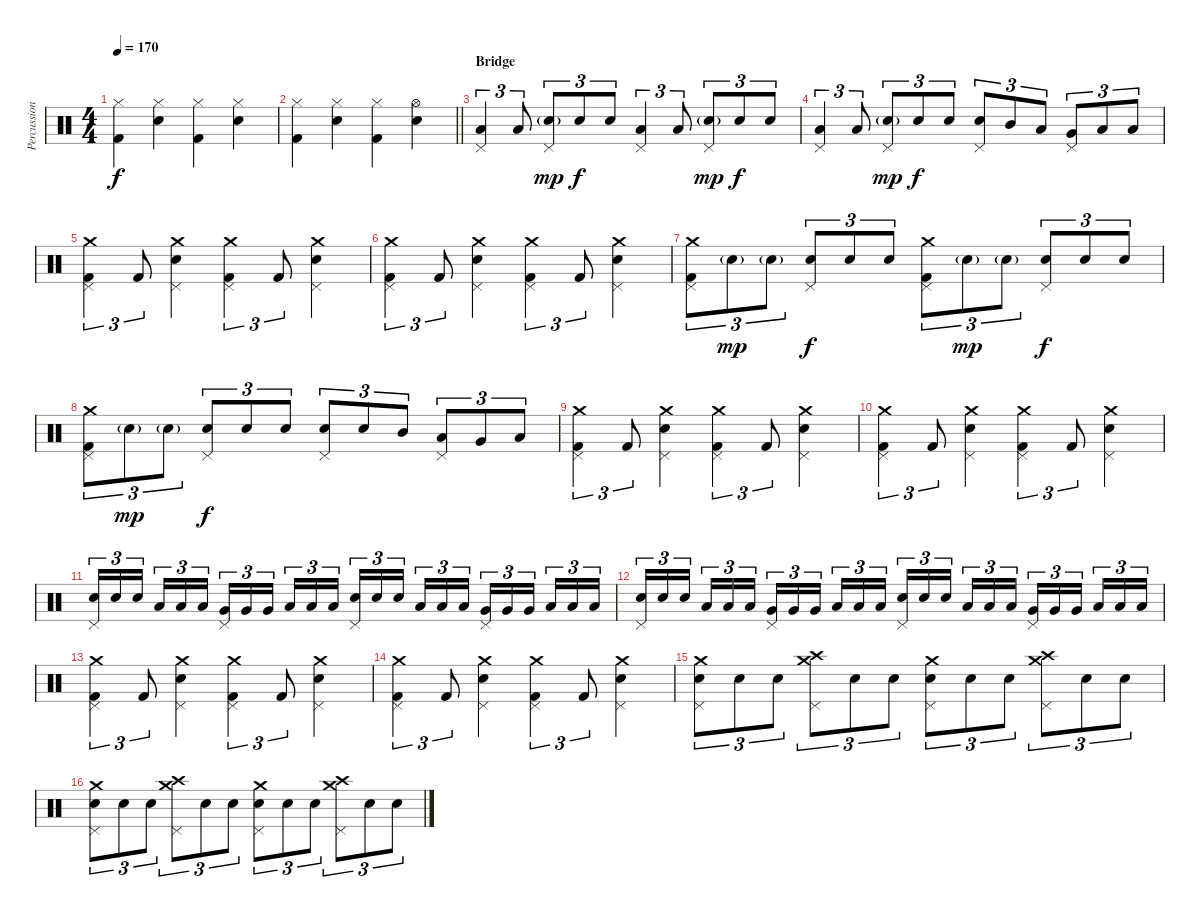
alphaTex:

\track ("Percussion" "Percussion") {instrument percussion}
\staff {score}
\articulation defaults
\ts (4 4)
\tempo 170
\clef neutral
\ks c
("Hi-Hat (closed)" "Kick (hit) 2").4{dy f} ("Hi-Hat (closed)" "Snare (hit) 2").4 ("Hi-Hat (closed)" "Kick (hit) 2").4 ("Hi-Hat (closed)" "Snare (hit) 2").4 |
\barLineRight lightlight
("Hi-Hat (closed)" "Kick (hit) 2").4 ("Hi-Hat (closed)" "Snare (hit) 2").4 ("Hi-Hat (closed)" "Kick (hit) 2").4 ("Hi-Hat (open)" "Snare (hit) 2").4 |
\section ("" "Bridge")
("Pedal Hi-Hat (hit)" "Low Tom (hit)").4{tu (3 2)} "Low Tom (hit)".8{tu (3 2)} ("Pedal Hi-Hat (hit)" "Snare (hit) 2"{g}).8{tu (3 2) dy mp} "Snare (hit) 2".8{tu (3 2) dy f} "Snare (hit) 2".8{tu (3 2)} ("Pedal Hi-Hat (hit)" "Low Tom (hit)").4{tu (3 2)} "Low Tom (hit)".8{tu (3 2)} ("Pedal Hi-Hat (hit)" "Snare (hit) 2"{g}).8{tu (3 2) dy mp} "Snare (hit) 2".8{tu (3 2) dy f} "Snare (hit) 2".8{tu (3 2)} |
("Pedal Hi-Hat (hit)" "Low Tom (hit)").4{tu (3 2)} "Low Tom (hit)".8{tu (3 2)} ("Pedal Hi-Hat (hit)" "Snare (hit) 2"{g}).8{tu (3 2) dy mp} "Snare (hit) 2".8{tu (3 2) dy f} "Snare (hit) 2".8{tu (3 2)} ("Pedal Hi-Hat (hit)" "Snare (hit) 2").8{tu (3 2)} "Mid Tom (hit)".8{tu (3 2)} "Low Tom (hit)".8{tu (3 2)} ("Pedal Hi-Hat (hit)" "Very Low Tom (hit)").8{tu (3 2)} "Low Floor Tom (hit)".8{tu (3 2)} "Low Floor Tom (hit)".8{tu (3 2)} |
("Crash medium (hit)" "Pedal Hi-Hat (hit)" "Kick (hit) 2").4{tu (3 2)} "Kick (hit) 2".8{tu (3 2)} ("Crash medium (hit)" "Pedal Hi-Hat (hit)" "Snare (hit) 2").4 ("Crash medium (hit)" "Pedal Hi-Hat (hit)" "Kick (hit) 2").4{tu (3 2)} "Kick (hit) 2".8{tu (3 2)} ("Crash medium (hit)" "Pedal Hi-Hat (hit)" "Snare (hit) 2").4 |
("Crash medium (hit)" "Pedal Hi-Hat (hit)" "Kick (hit) 2").4{tu (3 2)} "Kick (hit) 2".8{tu (3 2)} ("Crash medium (hit)" "Pedal Hi-Hat (hit)" "Snare (hit) 2").4 ("Crash medium (hit)" "Pedal Hi-Hat (hit)" "Kick (hit) 2").4{tu (3 2)} "Kick (hit) 2".8{tu (3 2)} ("Crash medium (hit)" "Pedal Hi-Hat (hit)" "Snare (hit) 2").4 |
("Crash medium (hit)" "Pedal Hi-Hat (hit)" "Kick (hit) 2").8{tu (3 2)} "Snare (hit) 2"{g}.8{tu (3 2) dy mp} "Snare (hit) 2"{g}.8{tu (3 2)} ("Pedal Hi-Hat (hit)" "Snare (hit) 2").8{tu (3 2) dy f} "Snare (hit) 2".8{tu (3 2)} "Snare (hit) 2".8{tu (3 2)} ("Crash medium (hit)" "Pedal Hi-Hat (hit)" "Kick (hit) 2").8{tu (3 2)} "Snare (hit) 2"{g}.8{tu (3 2) dy mp} "Snare (hit) 2"{g}.8{tu (3 2)} ("Pedal Hi-Hat (hit)" "Snare (hit) 2").8{tu (3 2) dy f} "Snare (hit) 2".8{tu (3 2)} "Snare (hit) 2".8{tu (3 2)} |
("Crash medium (hit)" "Pedal Hi-Hat (hit)" "Kick (hit) 2").8{tu (3 2)} "Snare (hit) 2"{g}.8{tu (3 2) dy mp} "Snare (hit) 2"{g}.8{tu (3 2)} ("Pedal Hi-Hat (hit)" "Snare (hit) 2").8{tu (3 2) dy f} "Snare (hit) 2".8{tu (3 2)} "Snare (hit) 2".8{tu (3 2)} ("Pedal Hi-Hat (hit)" "Snare (hit) 2").8{tu (3 2)} "Snare (hit) 2".8{tu (3 2)} "Mid Tom (hit)".8{tu (3 2)} ("Pedal Hi-Hat (hit)" "Low Tom (hit)").8{tu (3 2)} "Very Low Tom (hit)".8{tu (3 2)} "Low Floor Tom (hit)".8{tu (3 2)} |
("Crash medium (hit)" "Pedal Hi-Hat (hit)" "Kick (hit) 2").4{tu (3 2)} "Kick (hit) 2".8{tu (3 2)} ("Crash medium (hit)" "Pedal Hi-Hat (hit)" "Snare (hit) 2").4 ("Crash medium (hit)" "Pedal Hi-Hat (hit)" "Kick (hit) 2").4{tu (3 2)} "Kick (hit) 2".8{tu (3 2)} ("Crash medium (hit)" "Pedal Hi-Hat (hit)" "Snare (hit) 2").4 |
("Crash medium (hit)" "Pedal Hi-Hat (hit)" "Kick (hit) 2").4{tu (3 2)} "Kick (hit) 2".8{tu (3 2)} ("Crash medium (hit)" "Pedal Hi-Hat (hit)" "Snare (hit) 2").4 ("Crash medium (hit)" "Pedal Hi-Hat (hit)" "Kick (hit) 2").4{tu (3 2)} "Kick (hit) 2".8{tu (3 2)} ("Crash medium (hit)" "Pedal Hi-Hat (hit)" "Snare (hit) 2").4 |
("Pedal Hi-Hat (hit)" "Snare (hit) 2").16{tu (3 2)} "Snare (hit) 2".16{tu (3 2)} "Snare (hit) 2".16{tu (3 2) beam splitsecondary} "Low Tom (hit)".16{tu (3 2)} "Low Tom (hit)".16{tu (3 2)} "Low Tom (hit)".16{tu (3 2)} ("Pedal Hi-Hat (hit)" "Very Low Tom (hit)").16{tu (3 2)} "Very Low Tom (hit)".16{tu (3 2)} "Very Low Tom (hit)".16{tu (3 2) beam splitsecondary} "Low Floor Tom (hit)".16{tu (3 2)} "Low Floor Tom (hit)".16{tu (3 2)} "Low Floor Tom (hit)".16{tu (3 2)} ("Pedal Hi-Hat (hit)" "Snare (hit) 2").16{tu (3 2)} "Snare (hit) 2".16{tu (3 2)} "Snare (hit) 2".16{tu (3 2) beam splitsecondary} "Low Tom (hit)".16{tu (3 2)} "Low Tom (hit)".16{tu (3 2)} "Low Tom (hit)".16{tu (3 2)} ("Pedal Hi-Hat (hit)" "Very Low Tom (hit)").16{tu (3 2)} "Very Low Tom (hit)".16{tu (3 2)} "Very Low Tom (hit)".16{tu (3 2) beam splitsecondary} "Low Floor Tom (hit)".16{tu (3 2)} "Low Floor Tom (hit)".16{tu (3 2)} "Low Floor Tom (hit)".16{tu (3 2)} |
("Pedal Hi-Hat (hit)" "Snare (hit) 2").16{tu (3 2)} "Snare (hit) 2".16{tu (3 2)} "Snare (hit) 2".16{tu (3 2) beam splitsecondary} "Low Tom (hit)".16{tu (3 2)} "Low Tom (hit)".16{tu (3 2)} "Low Tom (hit)".16{tu (3 2)} ("Pedal Hi-Hat (hit)" "Very Low Tom (hit)").16{tu (3 2)} "Very Low Tom (hit)".16{tu (3 2)} "Very Low Tom (hit)".16{tu (3 2) beam splitsecondary} "Low Floor Tom (hit)".16{tu (3 2)} "Low Floor Tom (hit)".16{tu (3 2)} "Low Floor Tom (hit)".16{tu (3 2)} ("Pedal Hi-Hat (hit)" "Snare (hit) 2").16{tu (3 2)} "Snare (hit) 2".16{tu (3 2)} "Snare (hit) 2".16{tu (3 2) beam splitsecondary} "Low Tom (hit)".16{tu (3 2)} "Low Tom (hit)".16{tu (3 2)} "Low Tom (hit)".16{tu (3 2)} ("Pedal Hi-Hat (hit)" "Very Low Tom (hit)").16{tu (3 2)} "Very Low Tom (hit)".16{tu (3 2)} "Very Low Tom (hit)".16{tu (3 2) beam splitsecondary} "Low Floor Tom (hit)".16{tu (3 2)} "Low Floor Tom (hit)".16{tu (3 2)} "Low Floor Tom (hit)".16{tu (3 2)} |
("Crash medium (hit)" "Pedal Hi-Hat (hit)" "Kick (hit) 2").4{tu (3 2)} "Kick (hit) 2".8{tu (3 2)} ("Crash medium (hit)" "Pedal Hi-Hat (hit)" "Snare (hit) 2").4 ("Crash medium (hit)" "Pedal Hi-Hat (hit)" "Kick (hit) 2").4{tu (3 2)} "Kick (hit) 2".8{tu (3 2)} ("Crash medium (hit)" "Pedal Hi-Hat (hit)" "Snare (hit) 2").4 |
("Crash medium (hit)" "Pedal Hi-Hat (hit)" "Kick (hit) 2").4{tu (3 2)} "Kick (hit) 2".8{tu (3 2)} ("Crash medium (hit)" "Pedal Hi-Hat (hit)" "Snare (hit) 2").4 ("Crash medium (hit)" "Pedal Hi-Hat (hit)" "Kick (hit) 2").4{tu (3 2)} "Kick (hit) 2".8{tu (3 2)} ("Crash medium (hit)" "Pedal Hi-Hat (hit)" "Snare (hit) 2").4 |
("Crash medium (hit)" "Pedal Hi-Hat (hit)" "Snare (hit) 2").8{tu (3 2)} "Snare (hit) 2".8{tu (3 2)} "Snare (hit) 2".8{tu (3 2)} ("Crash medium (hit)" "Crash high (hit)" "Pedal Hi-Hat (hit)").8{tu (3 2)} "Snare (hit) 2".8{tu (3 2)} "Snare (hit) 2".8{tu (3 2)} ("Crash medium (hit)" "Pedal Hi-Hat (hit)" "Snare (hit) 2").8{tu (3 2)} "Snare (hit) 2".8{tu (3 2)} "Snare (hit) 2".8{tu (3 2)} ("Crash medium (hit)" "Crash high (hit)" "Pedal Hi-Hat (hit)").8{tu (3 2)} "Snare (hit) 2".8{tu (3 2)} "Snare (hit) 2".8{tu (3 2)} |
("Crash medium (hit)" "Pedal Hi-Hat (hit)" "Snare (hit) 2").8{tu (3 2)} "Snare (hit) 2".8{tu (3 2)} "Snare (hit) 2".8{tu (3 2)} ("Crash medium (hit)" "Crash high (hit)" "Pedal Hi-Hat (hit)").8{tu (3 2)} "Snare (hit) 2".8{tu (3 2)} "Snare (hit) 2".8{tu (3 2)} ("Crash medium (hit)" "Pedal Hi-Hat (hit)" "Snare (hit) 2").8{tu (3 2)} "Snare (hit) 2".8{tu (3 2)} "Snare (hit) 2".8{tu (3 2)} ("Crash medium (hit)" "Crash high (hit)" "Pedal Hi-Hat (hit)").8{tu (3 2)} "Snare (hit) 2".8{tu (3 2)} "Snare (hit) 2".8{tu (3 2)}
